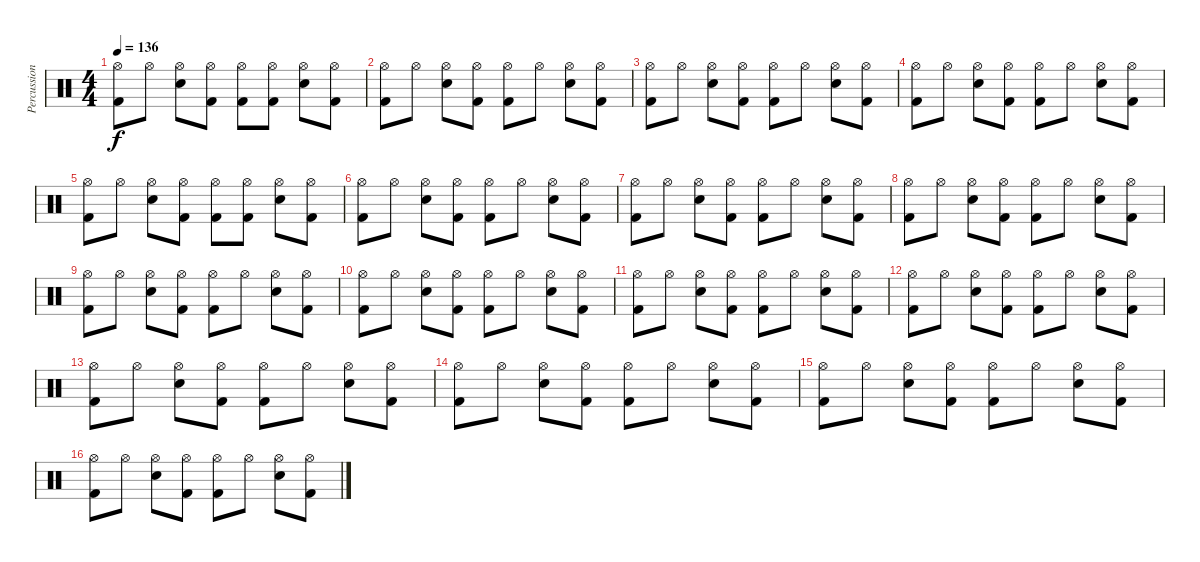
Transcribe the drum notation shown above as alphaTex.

\track ("Percussion" "Percussion") {instrument percussion}
\staff {score}
\articulation defaults
\ts (4 4)
\tempo 136
\clef neutral
\ks c
("Hi-Hat (open)" "Kick (hit) 2").8{dy f} "Hi-Hat (open)".8 ("Hi-Hat (open)" "Electric Snare (hit)").8 ("Hi-Hat (open)" "Kick (hit) 2").8 ("Hi-Hat (open)" "Kick (hit) 2").8 ("Hi-Hat (open)" "Kick (hit) 2").8 ("Hi-Hat (open)" "Electric Snare (hit)").8 ("Hi-Hat (open)" "Kick (hit) 2").8 |
("Hi-Hat (open)" "Kick (hit) 2").8 "Hi-Hat (open)".8 ("Hi-Hat (open)" "Electric Snare (hit)").8 ("Hi-Hat (open)" "Kick (hit) 2").8 ("Hi-Hat (open)" "Kick (hit) 2").8 "Hi-Hat (open)".8 ("Hi-Hat (open)" "Electric Snare (hit)").8 ("Hi-Hat (open)" "Kick (hit) 2").8 |
("Hi-Hat (open)" "Kick (hit) 2").8 "Hi-Hat (open)".8 ("Hi-Hat (open)" "Electric Snare (hit)").8 ("Hi-Hat (open)" "Kick (hit) 2").8 ("Hi-Hat (open)" "Kick (hit) 2").8 "Hi-Hat (open)".8 ("Hi-Hat (open)" "Electric Snare (hit)").8 ("Hi-Hat (open)" "Kick (hit) 2").8 |
("Hi-Hat (open)" "Kick (hit) 2").8 "Hi-Hat (open)".8 ("Hi-Hat (open)" "Electric Snare (hit)").8 ("Hi-Hat (open)" "Kick (hit) 2").8 ("Hi-Hat (open)" "Kick (hit) 2").8 "Hi-Hat (open)".8 ("Hi-Hat (open)" "Electric Snare (hit)").8 ("Hi-Hat (open)" "Kick (hit) 2").8 |
("Hi-Hat (open)" "Kick (hit) 2").8 "Hi-Hat (open)".8 ("Hi-Hat (open)" "Electric Snare (hit)").8 ("Hi-Hat (open)" "Kick (hit) 2").8 ("Hi-Hat (open)" "Kick (hit) 2").8 ("Hi-Hat (open)" "Kick (hit) 2").8 ("Hi-Hat (open)" "Electric Snare (hit)").8 ("Hi-Hat (open)" "Kick (hit) 2").8 |
("Hi-Hat (open)" "Kick (hit) 2").8 "Hi-Hat (open)".8 ("Hi-Hat (open)" "Electric Snare (hit)").8 ("Hi-Hat (open)" "Kick (hit) 2").8 ("Hi-Hat (open)" "Kick (hit) 2").8 "Hi-Hat (open)".8 ("Hi-Hat (open)" "Electric Snare (hit)").8 ("Hi-Hat (open)" "Kick (hit) 2").8 |
("Hi-Hat (open)" "Kick (hit) 2").8 "Hi-Hat (open)".8 ("Hi-Hat (open)" "Electric Snare (hit)").8 ("Hi-Hat (open)" "Kick (hit) 2").8 ("Hi-Hat (open)" "Kick (hit) 2").8 "Hi-Hat (open)".8 ("Hi-Hat (open)" "Electric Snare (hit)").8 ("Hi-Hat (open)" "Kick (hit) 2").8 |
("Hi-Hat (open)" "Kick (hit) 2").8 "Hi-Hat (open)".8 ("Hi-Hat (open)" "Electric Snare (hit)").8 ("Hi-Hat (open)" "Kick (hit) 2").8 ("Hi-Hat (open)" "Kick (hit) 2").8 "Hi-Hat (open)".8 ("Hi-Hat (open)" "Electric Snare (hit)").8 ("Hi-Hat (open)" "Kick (hit) 2").8 |
("Hi-Hat (open)" "Kick (hit) 2").8 "Hi-Hat (open)".8 ("Hi-Hat (open)" "Electric Snare (hit)").8 ("Hi-Hat (open)" "Kick (hit) 2").8 ("Hi-Hat (open)" "Kick (hit) 2").8 "Hi-Hat (open)".8 ("Hi-Hat (open)" "Electric Snare (hit)").8 ("Hi-Hat (open)" "Kick (hit) 2").8 |
("Hi-Hat (open)" "Kick (hit) 2").8 "Hi-Hat (open)".8 ("Hi-Hat (open)" "Electric Snare (hit)").8 ("Hi-Hat (open)" "Kick (hit) 2").8 ("Hi-Hat (open)" "Kick (hit) 2").8 "Hi-Hat (open)".8 ("Hi-Hat (open)" "Electric Snare (hit)").8 ("Hi-Hat (open)" "Kick (hit) 2").8 |
("Hi-Hat (open)" "Kick (hit) 2").8 "Hi-Hat (open)".8 ("Hi-Hat (open)" "Electric Snare (hit)").8 ("Hi-Hat (open)" "Kick (hit) 2").8 ("Hi-Hat (open)" "Kick (hit) 2").8 "Hi-Hat (open)".8 ("Hi-Hat (open)" "Electric Snare (hit)").8 ("Hi-Hat (open)" "Kick (hit) 2").8 |
("Hi-Hat (open)" "Kick (hit) 2").8 "Hi-Hat (open)".8 ("Hi-Hat (open)" "Electric Snare (hit)").8 ("Hi-Hat (open)" "Kick (hit) 2").8 ("Hi-Hat (open)" "Kick (hit) 2").8 "Hi-Hat (open)".8 ("Hi-Hat (open)" "Electric Snare (hit)").8 ("Hi-Hat (open)" "Kick (hit) 2").8 |
("Hi-Hat (open)" "Kick (hit) 2").8 "Hi-Hat (open)".8 ("Hi-Hat (open)" "Electric Snare (hit)").8 ("Hi-Hat (open)" "Kick (hit) 2").8 ("Hi-Hat (open)" "Kick (hit) 2").8 "Hi-Hat (open)".8 ("Hi-Hat (open)" "Electric Snare (hit)").8 ("Hi-Hat (open)" "Kick (hit) 2").8 |
("Hi-Hat (open)" "Kick (hit) 2").8 "Hi-Hat (open)".8 ("Hi-Hat (open)" "Electric Snare (hit)").8 ("Hi-Hat (open)" "Kick (hit) 2").8 ("Hi-Hat (open)" "Kick (hit) 2").8 "Hi-Hat (open)".8 ("Hi-Hat (open)" "Electric Snare (hit)").8 ("Hi-Hat (open)" "Kick (hit) 2").8 |
("Hi-Hat (open)" "Kick (hit) 2").8 "Hi-Hat (open)".8 ("Hi-Hat (open)" "Electric Snare (hit)").8 ("Hi-Hat (open)" "Kick (hit) 2").8 ("Hi-Hat (open)" "Kick (hit) 2").8 "Hi-Hat (open)".8 ("Hi-Hat (open)" "Electric Snare (hit)").8 ("Hi-Hat (open)" "Kick (hit) 2").8 |
("Hi-Hat (open)" "Kick (hit) 2").8 "Hi-Hat (open)".8 ("Hi-Hat (open)" "Electric Snare (hit)").8 ("Hi-Hat (open)" "Kick (hit) 2").8 ("Hi-Hat (open)" "Kick (hit) 2").8 "Hi-Hat (open)".8 ("Hi-Hat (open)" "Electric Snare (hit)").8 ("Hi-Hat (open)" "Kick (hit) 2").8
